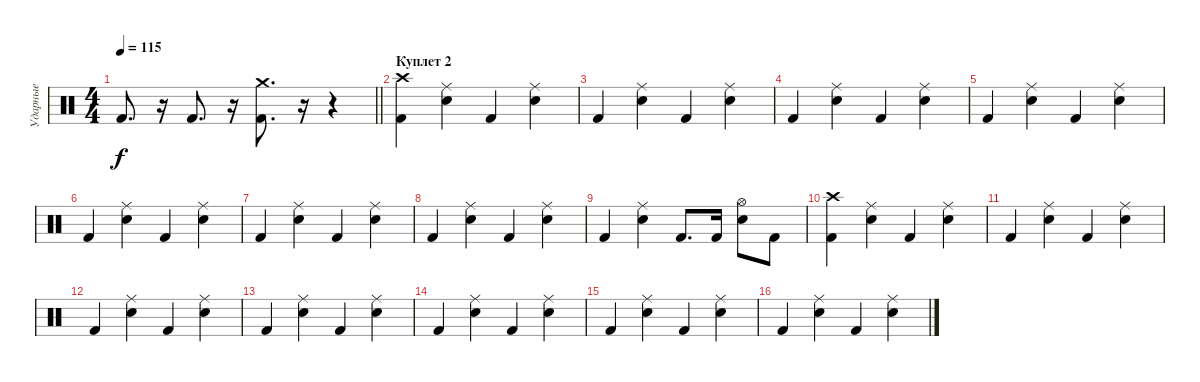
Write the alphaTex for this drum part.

\track ("Ударные" "Ударные") {instrument percussion}
\staff {score}
\articulation defaults
\ts (4 4)
\tempo 115
\clef neutral
\barLineRight lightlight
\ks c "Kick (hit) 2".8{d dy f}
r.16 "Kick (hit) 2".8{d} r.16 ("Kick (hit) 2" "Crash medium (hit)").8{d} r.16 r.4 |
\section ("" "Куплет 2")
("Kick (hit) 2" "Crash high (hit)").4 ("Snare (hit) 2" "Ride (middle)").4 "Kick (hit) 2".4 ("Snare (hit) 2" "Ride (middle)").4 |
"Kick (hit) 2".4 ("Snare (hit) 2" "Ride (middle)").4 "Kick (hit) 2".4 ("Snare (hit) 2" "Ride (middle)").4 |
"Kick (hit) 2".4 ("Snare (hit) 2" "Ride (middle)").4 "Kick (hit) 2".4 ("Snare (hit) 2" "Ride (middle)").4 |
"Kick (hit) 2".4 ("Snare (hit) 2" "Ride (middle)").4 "Kick (hit) 2".4 ("Snare (hit) 2" "Ride (middle)").4 |
"Kick (hit) 2".4 ("Snare (hit) 2" "Ride (middle)").4 "Kick (hit) 2".4 ("Snare (hit) 2" "Ride (middle)").4 |
"Kick (hit) 2".4 ("Snare (hit) 2" "Ride (middle)").4 "Kick (hit) 2".4 ("Snare (hit) 2" "Ride (middle)").4 |
"Kick (hit) 2".4 ("Snare (hit) 2" "Ride (middle)").4 "Kick (hit) 2".4 ("Snare (hit) 2" "Ride (middle)").4 |
"Kick (hit) 2".4 ("Snare (hit) 2" "Ride (middle)").4 "Kick (hit) 2".8{d} "Kick (hit) 2".16 ("Snare (hit) 2" "Hi-Hat (open)").8 "Kick (hit) 2".8 |
("Kick (hit) 2" "Crash high (hit)").4 ("Snare (hit) 2" "Ride (middle)").4 "Kick (hit) 2".4 ("Snare (hit) 2" "Ride (middle)").4 |
"Kick (hit) 2".4 ("Snare (hit) 2" "Ride (middle)").4 "Kick (hit) 2".4 ("Snare (hit) 2" "Ride (middle)").4 |
"Kick (hit) 2".4 ("Snare (hit) 2" "Ride (middle)").4 "Kick (hit) 2".4 ("Snare (hit) 2" "Ride (middle)").4 |
"Kick (hit) 2".4 ("Snare (hit) 2" "Ride (middle)").4 "Kick (hit) 2".4 ("Snare (hit) 2" "Ride (middle)").4 |
"Kick (hit) 2".4 ("Snare (hit) 2" "Ride (middle)").4 "Kick (hit) 2".4 ("Snare (hit) 2" "Ride (middle)").4 |
"Kick (hit) 2".4 ("Snare (hit) 2" "Ride (middle)").4 "Kick (hit) 2".4 ("Snare (hit) 2" "Ride (middle)").4 |
"Kick (hit) 2".4 ("Snare (hit) 2" "Ride (middle)").4 "Kick (hit) 2".4 ("Snare (hit) 2" "Ride (middle)").4
